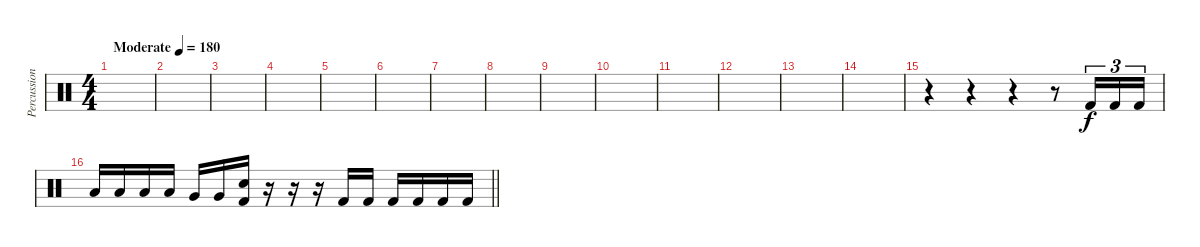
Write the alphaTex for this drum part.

\track ("Percussion" "Percussion") {instrument percussion}
\staff {score}
\articulation defaults
\ts (4 4)
\tempo (180 "Moderate")
\clef neutral
\ks c
|
|
|
|
|
|
|
|
|
|
|
|
|
|
r.4 r.4 r.4 r.8 "Kick (hit) 2".16{tu (3 2)} "Kick (hit) 2".16{tu (3 2)} "Kick (hit) 2".16{tu (3 2)} |
\barLineRight lightlight "Low Tom (hit)".16 "Low Tom (hit)".16 "Low Tom (hit)".16 "Low Tom (hit)".16 "Very Low Tom (hit)".16 "Very Low Tom (hit)".16
("Electric Snare (hit)" "Kick (hit) 2").16 r.16 r.16 r.16 "Kick (hit) 2".16 "Kick (hit) 2".16 "Kick (hit) 2".16 "Kick (hit) 2".16 "Kick (hit) 2".16 "Kick (hit) 2".16
